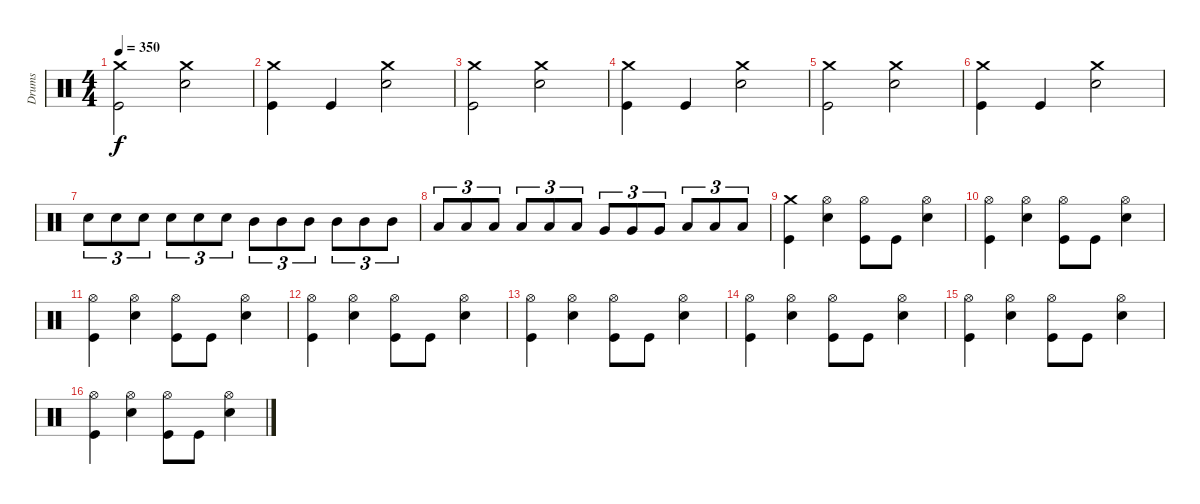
\track ("Drums" "Drums") {instrument percussion}
\staff {score}
\articulation defaults
\ts (4 4)
\tempo 350
\clef neutral
\ks c
("Crash medium (hit)" "Kick (hit)").2{dy f} ("Crash medium (hit)" "Snare (hit) 2").2 |
("Crash medium (hit)" "Kick (hit)").4 "Kick (hit)".4 ("Crash medium (hit)" "Snare (hit) 2").2 |
("Crash medium (hit)" "Kick (hit)").2 ("Crash medium (hit)" "Snare (hit) 2").2 |
("Crash medium (hit)" "Kick (hit)").4 "Kick (hit)".4 ("Crash medium (hit)" "Snare (hit) 2").2 |
("Crash medium (hit)" "Kick (hit)").2 ("Crash medium (hit)" "Snare (hit) 2").2 |
("Crash medium (hit)" "Kick (hit)").4 "Kick (hit)".4 ("Crash medium (hit)" "Snare (hit) 2").2 |
"Snare (hit) 2".8{tu (3 2)} "Snare (hit) 2".8{tu (3 2)} "Snare (hit) 2".8{tu (3 2)} "Snare (hit) 2".8{tu (3 2)} "Snare (hit) 2".8{tu (3 2)} "Snare (hit) 2".8{tu (3 2)} "Mid Tom (hit)".8{tu (3 2)} "Mid Tom (hit)".8{tu (3 2)} "Mid Tom (hit)".8{tu (3 2)} "Mid Tom (hit)".8{tu (3 2)} "Mid Tom (hit)".8{tu (3 2)} "Mid Tom (hit)".8{tu (3 2)} |
"Low Tom (hit)".8{tu (3 2)} "Low Tom (hit)".8{tu (3 2)} "Low Tom (hit)".8{tu (3 2)} "Low Tom (hit)".8{tu (3 2)} "Low Tom (hit)".8{tu (3 2)} "Low Tom (hit)".8{tu (3 2)} "Very Low Tom (hit)".8{tu (3 2)} "Very Low Tom (hit)".8{tu (3 2)} "Very Low Tom (hit)".8{tu (3 2)} "Low Floor Tom (hit)".8{tu (3 2)} "Low Floor Tom (hit)".8{tu (3 2)} "Low Floor Tom (hit)".8{tu (3 2)} |
("Crash medium (hit)" "Kick (hit)").4 ("Hi-Hat (open)" "Snare (hit) 2").4 ("Hi-Hat (open)" "Kick (hit)").8 "Kick (hit)".8 ("Hi-Hat (open)" "Snare (hit) 2").4 |
("Hi-Hat (open)" "Kick (hit)").4 ("Hi-Hat (open)" "Snare (hit) 2").4 ("Hi-Hat (open)" "Kick (hit)").8 "Kick (hit)".8 ("Hi-Hat (open)" "Snare (hit) 2").4 |
("Hi-Hat (open)" "Kick (hit)").4 ("Hi-Hat (open)" "Snare (hit) 2").4 ("Hi-Hat (open)" "Kick (hit)").8 "Kick (hit)".8 ("Hi-Hat (open)" "Snare (hit) 2").4 |
("Hi-Hat (open)" "Kick (hit)").4 ("Hi-Hat (open)" "Snare (hit) 2").4 ("Hi-Hat (open)" "Kick (hit)").8 "Kick (hit)".8 ("Hi-Hat (open)" "Snare (hit) 2").4 |
("Hi-Hat (open)" "Kick (hit)").4 ("Hi-Hat (open)" "Snare (hit) 2").4 ("Hi-Hat (open)" "Kick (hit)").8 "Kick (hit)".8 ("Hi-Hat (open)" "Snare (hit) 2").4 |
("Hi-Hat (open)" "Kick (hit)").4 ("Hi-Hat (open)" "Snare (hit) 2").4 ("Hi-Hat (open)" "Kick (hit)").8 "Kick (hit)".8 ("Hi-Hat (open)" "Snare (hit) 2").4 |
("Hi-Hat (open)" "Kick (hit)").4 ("Hi-Hat (open)" "Snare (hit) 2").4 ("Hi-Hat (open)" "Kick (hit)").8 "Kick (hit)".8 ("Hi-Hat (open)" "Snare (hit) 2").4 |
("Hi-Hat (open)" "Kick (hit)").4 ("Hi-Hat (open)" "Snare (hit) 2").4 ("Hi-Hat (open)" "Kick (hit)").8 "Kick (hit)".8 ("Hi-Hat (open)" "Snare (hit) 2").4
